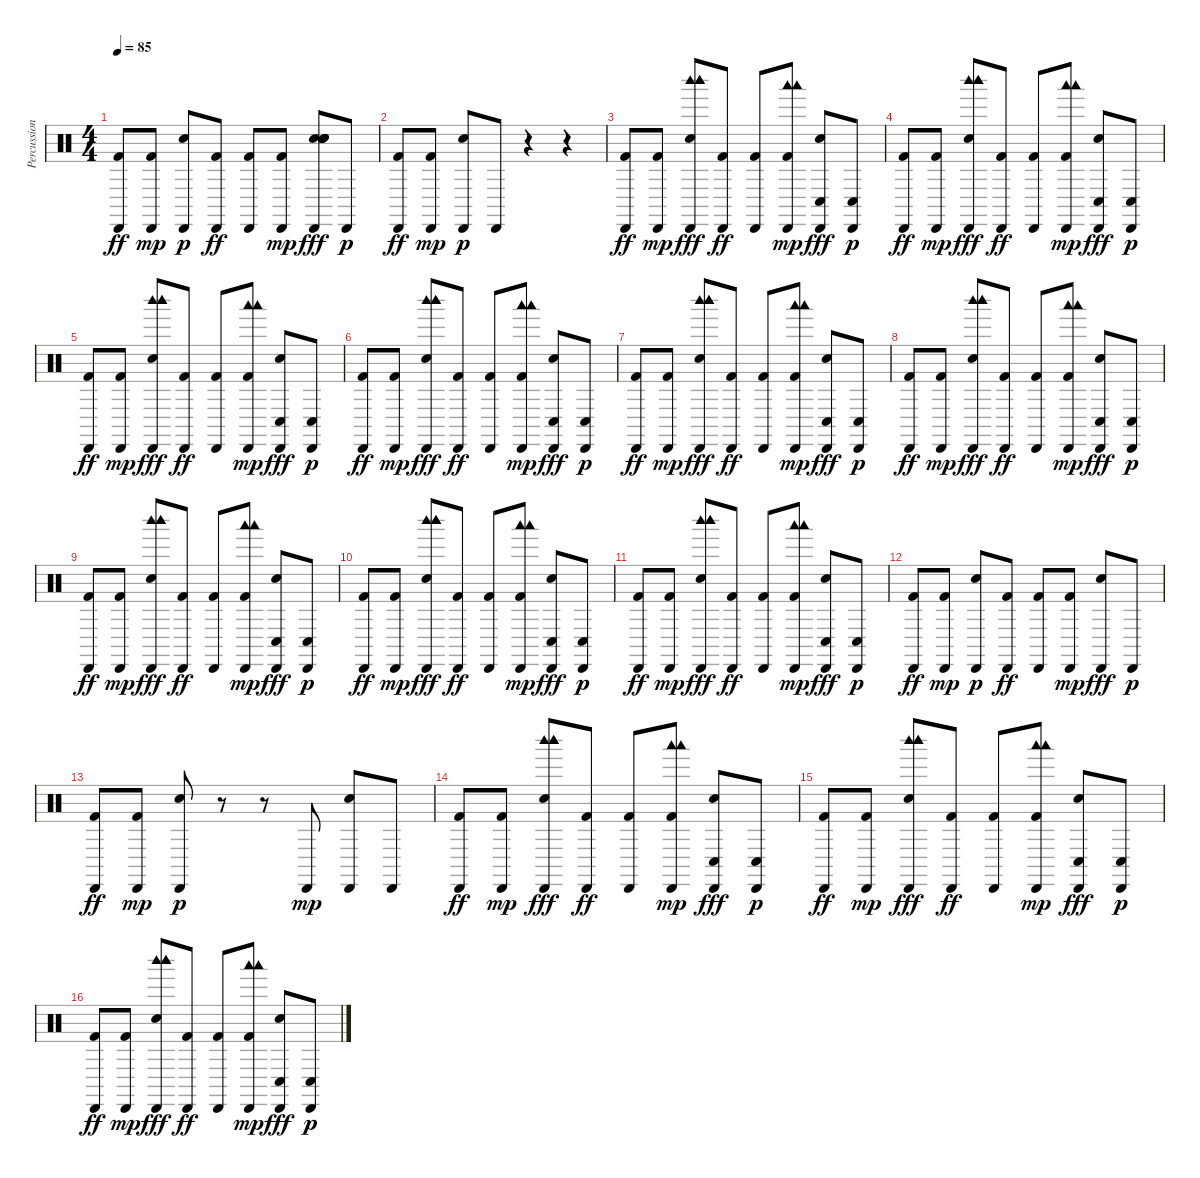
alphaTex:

\track ("Percussion" "Percussion") {instrument percussion}
\staff {score}
\articulation defaults
\ts (4 4)
\tempo 85
\clef neutral
\ks c
("Cabasa (hit)" "Kick (hit) 2").8{dy ff} ("Cabasa (hit)" "Kick (hit) 2").8{dy mp} ("Hand Clap (hit)" "Cabasa (hit)").8{dy p} ("Cabasa (hit)" "Kick (hit) 2").8{dy ff} ("Cabasa (hit)" "Kick (hit) 2").8 ("Cabasa (hit)" "Kick (hit) 2").8{dy mp} ("Hand Clap (hit)" "Hand Clap (hit)" "Hand Clap (hit)" "Cabasa (hit)" "Hand Clap (hit)" "Hand Clap (hit)").8{dy fff} "Cabasa (hit)".8{dy p} |
("Cabasa (hit)" "Kick (hit) 2").8{dy ff} ("Cabasa (hit)" "Kick (hit) 2").8{dy mp} ("Hand Clap (hit)" "Cabasa (hit)").8{dy p} "Cabasa (hit)".8 r.4 r.4 |
("Cabasa (hit)" "Kick (hit) 2").8{dy ff} ("Cabasa (hit)" "Kick (hit) 2").8{dy mp} ("Woodblock high (hit)" "Woodblock high (hit)" "Hand Clap (hit)" "Cabasa (hit)" "Woodblock high (hit)" "Woodblock high (hit)").8{dy fff} ("Cabasa (hit)" "Kick (hit) 2").8{dy ff} ("Cabasa (hit)" "Kick (hit) 2").8 ("Woodblock low (hit)" "Cabasa (hit)" "Woodblock low (hit)" "Kick (hit) 2").8{dy mp} ("Conga low (hit)" "Hand Clap (hit)" "Cabasa (hit)").8{dy fff} ("Conga low (hit)" "Cabasa (hit)").8{dy p} |
("Cabasa (hit)" "Kick (hit) 2").8{dy ff} ("Cabasa (hit)" "Kick (hit) 2").8{dy mp} ("Woodblock high (hit)" "Woodblock high (hit)" "Hand Clap (hit)" "Cabasa (hit)" "Woodblock high (hit)" "Woodblock high (hit)").8{dy fff} ("Cabasa (hit)" "Kick (hit) 2").8{dy ff} ("Cabasa (hit)" "Kick (hit) 2").8 ("Woodblock low (hit)" "Cabasa (hit)" "Woodblock low (hit)" "Kick (hit) 2").8{dy mp} ("Conga low (hit)" "Hand Clap (hit)" "Cabasa (hit)").8{dy fff} ("Conga low (hit)" "Cabasa (hit)").8{dy p} |
("Cabasa (hit)" "Kick (hit) 2").8{dy ff} ("Cabasa (hit)" "Kick (hit) 2").8{dy mp} ("Woodblock high (hit)" "Woodblock high (hit)" "Hand Clap (hit)" "Cabasa (hit)" "Woodblock high (hit)" "Woodblock high (hit)").8{dy fff} ("Cabasa (hit)" "Kick (hit) 2").8{dy ff} ("Cabasa (hit)" "Kick (hit) 2").8 ("Woodblock low (hit)" "Cabasa (hit)" "Woodblock low (hit)" "Kick (hit) 2").8{dy mp} ("Conga low (hit)" "Hand Clap (hit)" "Cabasa (hit)").8{dy fff} ("Conga low (hit)" "Cabasa (hit)").8{dy p} |
("Cabasa (hit)" "Kick (hit) 2").8{dy ff} ("Cabasa (hit)" "Kick (hit) 2").8{dy mp} ("Woodblock high (hit)" "Woodblock high (hit)" "Hand Clap (hit)" "Cabasa (hit)" "Woodblock high (hit)" "Woodblock high (hit)").8{dy fff} ("Cabasa (hit)" "Kick (hit) 2").8{dy ff} ("Cabasa (hit)" "Kick (hit) 2").8 ("Woodblock low (hit)" "Cabasa (hit)" "Woodblock low (hit)" "Kick (hit) 2").8{dy mp} ("Conga low (hit)" "Hand Clap (hit)" "Cabasa (hit)").8{dy fff} ("Conga low (hit)" "Cabasa (hit)").8{dy p} |
("Cabasa (hit)" "Kick (hit) 2").8{dy ff} ("Cabasa (hit)" "Kick (hit) 2").8{dy mp} ("Woodblock high (hit)" "Woodblock high (hit)" "Hand Clap (hit)" "Cabasa (hit)" "Woodblock high (hit)" "Woodblock high (hit)").8{dy fff} ("Cabasa (hit)" "Kick (hit) 2").8{dy ff} ("Cabasa (hit)" "Kick (hit) 2").8 ("Woodblock low (hit)" "Cabasa (hit)" "Woodblock low (hit)" "Kick (hit) 2").8{dy mp} ("Conga low (hit)" "Hand Clap (hit)" "Cabasa (hit)").8{dy fff} ("Conga low (hit)" "Cabasa (hit)").8{dy p} |
("Cabasa (hit)" "Kick (hit) 2").8{dy ff} ("Cabasa (hit)" "Kick (hit) 2").8{dy mp} ("Woodblock high (hit)" "Woodblock high (hit)" "Hand Clap (hit)" "Cabasa (hit)" "Woodblock high (hit)" "Woodblock high (hit)").8{dy fff} ("Cabasa (hit)" "Kick (hit) 2").8{dy ff} ("Cabasa (hit)" "Kick (hit) 2").8 ("Woodblock low (hit)" "Cabasa (hit)" "Woodblock low (hit)" "Kick (hit) 2").8{dy mp} ("Conga low (hit)" "Hand Clap (hit)" "Cabasa (hit)").8{dy fff} ("Conga low (hit)" "Cabasa (hit)").8{dy p} |
("Cabasa (hit)" "Kick (hit) 2").8{dy ff} ("Cabasa (hit)" "Kick (hit) 2").8{dy mp} ("Woodblock high (hit)" "Woodblock high (hit)" "Hand Clap (hit)" "Cabasa (hit)" "Woodblock high (hit)" "Woodblock high (hit)").8{dy fff} ("Cabasa (hit)" "Kick (hit) 2").8{dy ff} ("Cabasa (hit)" "Kick (hit) 2").8 ("Woodblock low (hit)" "Cabasa (hit)" "Woodblock low (hit)" "Kick (hit) 2").8{dy mp} ("Conga low (hit)" "Hand Clap (hit)" "Cabasa (hit)").8{dy fff} ("Conga low (hit)" "Cabasa (hit)").8{dy p} |
("Cabasa (hit)" "Kick (hit) 2").8{dy ff} ("Cabasa (hit)" "Kick (hit) 2").8{dy mp} ("Woodblock high (hit)" "Woodblock high (hit)" "Hand Clap (hit)" "Cabasa (hit)" "Woodblock high (hit)" "Woodblock high (hit)").8{dy fff} ("Cabasa (hit)" "Kick (hit) 2").8{dy ff} ("Cabasa (hit)" "Kick (hit) 2").8 ("Woodblock low (hit)" "Cabasa (hit)" "Woodblock low (hit)" "Kick (hit) 2").8{dy mp} ("Conga low (hit)" "Hand Clap (hit)" "Cabasa (hit)").8{dy fff} ("Conga low (hit)" "Cabasa (hit)").8{dy p} |
("Cabasa (hit)" "Kick (hit) 2").8{dy ff} ("Cabasa (hit)" "Kick (hit) 2").8{dy mp} ("Woodblock high (hit)" "Woodblock high (hit)" "Hand Clap (hit)" "Cabasa (hit)" "Woodblock high (hit)" "Woodblock high (hit)").8{dy fff} ("Cabasa (hit)" "Kick (hit) 2").8{dy ff} ("Cabasa (hit)" "Kick (hit) 2").8 ("Woodblock low (hit)" "Cabasa (hit)" "Woodblock low (hit)" "Kick (hit) 2").8{dy mp} ("Conga low (hit)" "Hand Clap (hit)" "Cabasa (hit)").8{dy fff} ("Conga low (hit)" "Cabasa (hit)").8{dy p} |
("Cabasa (hit)" "Kick (hit) 2").8{dy ff} ("Cabasa (hit)" "Kick (hit) 2").8{dy mp} ("Hand Clap (hit)" "Cabasa (hit)").8{dy p} ("Cabasa (hit)" "Kick (hit) 2").8{dy ff} ("Cabasa (hit)" "Kick (hit) 2").8 ("Cabasa (hit)" "Kick (hit) 2").8{dy mp} ("Hand Clap (hit)" "Cabasa (hit)").8{dy fff} "Cabasa (hit)".8{dy p} |
("Cabasa (hit)" "Kick (hit) 2").8{dy ff} ("Cabasa (hit)" "Kick (hit) 2").8{dy mp} ("Hand Clap (hit)" "Cabasa (hit)").8{dy p} r.8 r.8 "Cabasa (hit)".8{dy mp} ("Hand Clap (hit)" "Cabasa (hit)").8 "Cabasa (hit)".8 |
("Cabasa (hit)" "Kick (hit) 2").8{dy ff} ("Cabasa (hit)" "Kick (hit) 2").8{dy mp} ("Woodblock high (hit)" "Woodblock high (hit)" "Hand Clap (hit)" "Cabasa (hit)" "Woodblock high (hit)" "Woodblock high (hit)").8{dy fff} ("Cabasa (hit)" "Kick (hit) 2").8{dy ff} ("Cabasa (hit)" "Kick (hit) 2").8 ("Woodblock low (hit)" "Cabasa (hit)" "Woodblock low (hit)" "Kick (hit) 2").8{dy mp} ("Conga low (hit)" "Hand Clap (hit)" "Cabasa (hit)").8{dy fff} ("Conga low (hit)" "Cabasa (hit)").8{dy p} |
("Cabasa (hit)" "Kick (hit) 2").8{dy ff} ("Cabasa (hit)" "Kick (hit) 2").8{dy mp} ("Woodblock high (hit)" "Woodblock high (hit)" "Hand Clap (hit)" "Cabasa (hit)" "Woodblock high (hit)" "Woodblock high (hit)").8{dy fff} ("Cabasa (hit)" "Kick (hit) 2").8{dy ff} ("Cabasa (hit)" "Kick (hit) 2").8 ("Woodblock low (hit)" "Cabasa (hit)" "Woodblock low (hit)" "Kick (hit) 2").8{dy mp} ("Conga low (hit)" "Hand Clap (hit)" "Cabasa (hit)").8{dy fff} ("Conga low (hit)" "Cabasa (hit)").8{dy p} |
("Cabasa (hit)" "Kick (hit) 2").8{dy ff} ("Cabasa (hit)" "Kick (hit) 2").8{dy mp} ("Woodblock high (hit)" "Woodblock high (hit)" "Hand Clap (hit)" "Cabasa (hit)" "Woodblock high (hit)" "Woodblock high (hit)").8{dy fff} ("Cabasa (hit)" "Kick (hit) 2").8{dy ff} ("Cabasa (hit)" "Kick (hit) 2").8 ("Woodblock low (hit)" "Cabasa (hit)" "Woodblock low (hit)" "Kick (hit) 2").8{dy mp} ("Conga low (hit)" "Hand Clap (hit)" "Cabasa (hit)").8{dy fff} ("Conga low (hit)" "Cabasa (hit)").8{dy p}
